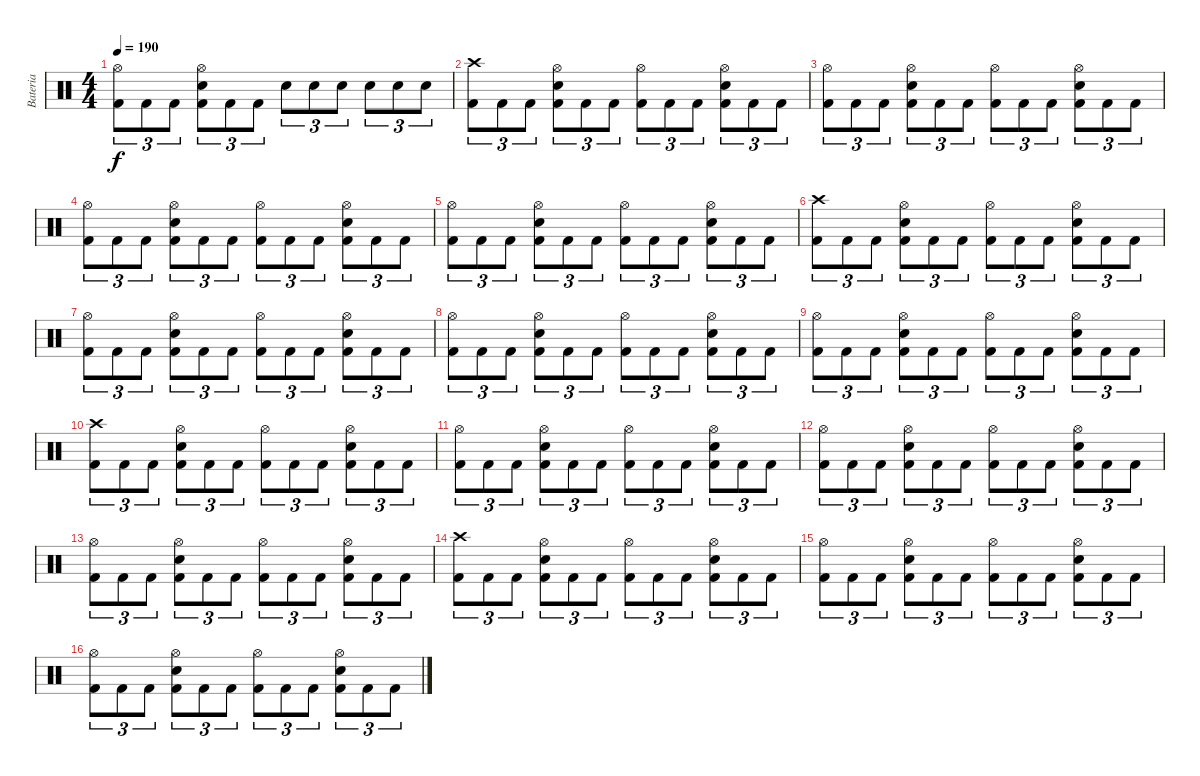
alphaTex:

\track ("Bateria" "Bateria") {instrument percussion}
\staff {score}
\articulation defaults
\ts (4 4)
\tempo 190
\clef neutral
\ks c
("Hi-Hat (open)" "Kick (hit) 2").8{tu (3 2) dy f} "Kick (hit) 2".8{tu (3 2)} "Kick (hit) 2".8{tu (3 2)} ("Hi-Hat (open)" "Electric Snare (hit)" "Kick (hit) 2").8{tu (3 2)} "Kick (hit) 2".8{tu (3 2)} "Kick (hit) 2".8{tu (3 2)} "Electric Snare (hit)".8{tu (3 2)} "Electric Snare (hit)".8{tu (3 2)} "Electric Snare (hit)".8{tu (3 2)} "Electric Snare (hit)".8{tu (3 2)} "Electric Snare (hit)".8{tu (3 2)} "Electric Snare (hit)".8{tu (3 2)} |
("Crash high (hit)" "Kick (hit) 2").8{tu (3 2)} "Kick (hit) 2".8{tu (3 2)} "Kick (hit) 2".8{tu (3 2)} ("Hi-Hat (open)" "Electric Snare (hit)" "Kick (hit) 2").8{tu (3 2)} "Kick (hit) 2".8{tu (3 2)} "Kick (hit) 2".8{tu (3 2)} ("Hi-Hat (open)" "Kick (hit) 2").8{tu (3 2)} "Kick (hit) 2".8{tu (3 2)} "Kick (hit) 2".8{tu (3 2)} ("Hi-Hat (open)" "Electric Snare (hit)" "Kick (hit) 2").8{tu (3 2)} "Kick (hit) 2".8{tu (3 2)} "Kick (hit) 2".8{tu (3 2)} |
("Hi-Hat (open)" "Kick (hit) 2").8{tu (3 2)} "Kick (hit) 2".8{tu (3 2)} "Kick (hit) 2".8{tu (3 2)} ("Hi-Hat (open)" "Electric Snare (hit)" "Kick (hit) 2").8{tu (3 2)} "Kick (hit) 2".8{tu (3 2)} "Kick (hit) 2".8{tu (3 2)} ("Hi-Hat (open)" "Kick (hit) 2").8{tu (3 2)} "Kick (hit) 2".8{tu (3 2)} "Kick (hit) 2".8{tu (3 2)} ("Hi-Hat (open)" "Electric Snare (hit)" "Kick (hit) 2").8{tu (3 2)} "Kick (hit) 2".8{tu (3 2)} "Kick (hit) 2".8{tu (3 2)} |
("Hi-Hat (open)" "Kick (hit) 2").8{tu (3 2)} "Kick (hit) 2".8{tu (3 2)} "Kick (hit) 2".8{tu (3 2)} ("Hi-Hat (open)" "Electric Snare (hit)" "Kick (hit) 2").8{tu (3 2)} "Kick (hit) 2".8{tu (3 2)} "Kick (hit) 2".8{tu (3 2)} ("Hi-Hat (open)" "Kick (hit) 2").8{tu (3 2)} "Kick (hit) 2".8{tu (3 2)} "Kick (hit) 2".8{tu (3 2)} ("Hi-Hat (open)" "Electric Snare (hit)" "Kick (hit) 2").8{tu (3 2)} "Kick (hit) 2".8{tu (3 2)} "Kick (hit) 2".8{tu (3 2)} |
("Hi-Hat (open)" "Kick (hit) 2").8{tu (3 2)} "Kick (hit) 2".8{tu (3 2)} "Kick (hit) 2".8{tu (3 2)} ("Hi-Hat (open)" "Electric Snare (hit)" "Kick (hit) 2").8{tu (3 2)} "Kick (hit) 2".8{tu (3 2)} "Kick (hit) 2".8{tu (3 2)} ("Hi-Hat (open)" "Kick (hit) 2").8{tu (3 2)} "Kick (hit) 2".8{tu (3 2)} "Kick (hit) 2".8{tu (3 2)} ("Hi-Hat (open)" "Electric Snare (hit)" "Kick (hit) 2").8{tu (3 2)} "Kick (hit) 2".8{tu (3 2)} "Kick (hit) 2".8{tu (3 2)} |
("Crash high (hit)" "Kick (hit) 2").8{tu (3 2)} "Kick (hit) 2".8{tu (3 2)} "Kick (hit) 2".8{tu (3 2)} ("Hi-Hat (open)" "Electric Snare (hit)" "Kick (hit) 2").8{tu (3 2)} "Kick (hit) 2".8{tu (3 2)} "Kick (hit) 2".8{tu (3 2)} ("Hi-Hat (open)" "Kick (hit) 2").8{tu (3 2)} "Kick (hit) 2".8{tu (3 2)} "Kick (hit) 2".8{tu (3 2)} ("Hi-Hat (open)" "Electric Snare (hit)" "Kick (hit) 2").8{tu (3 2)} "Kick (hit) 2".8{tu (3 2)} "Kick (hit) 2".8{tu (3 2)} |
("Hi-Hat (open)" "Kick (hit) 2").8{tu (3 2)} "Kick (hit) 2".8{tu (3 2)} "Kick (hit) 2".8{tu (3 2)} ("Hi-Hat (open)" "Electric Snare (hit)" "Kick (hit) 2").8{tu (3 2)} "Kick (hit) 2".8{tu (3 2)} "Kick (hit) 2".8{tu (3 2)} ("Hi-Hat (open)" "Kick (hit) 2").8{tu (3 2)} "Kick (hit) 2".8{tu (3 2)} "Kick (hit) 2".8{tu (3 2)} ("Hi-Hat (open)" "Electric Snare (hit)" "Kick (hit) 2").8{tu (3 2)} "Kick (hit) 2".8{tu (3 2)} "Kick (hit) 2".8{tu (3 2)} |
("Hi-Hat (open)" "Kick (hit) 2").8{tu (3 2)} "Kick (hit) 2".8{tu (3 2)} "Kick (hit) 2".8{tu (3 2)} ("Hi-Hat (open)" "Electric Snare (hit)" "Kick (hit) 2").8{tu (3 2)} "Kick (hit) 2".8{tu (3 2)} "Kick (hit) 2".8{tu (3 2)} ("Hi-Hat (open)" "Kick (hit) 2").8{tu (3 2)} "Kick (hit) 2".8{tu (3 2)} "Kick (hit) 2".8{tu (3 2)} ("Hi-Hat (open)" "Electric Snare (hit)" "Kick (hit) 2").8{tu (3 2)} "Kick (hit) 2".8{tu (3 2)} "Kick (hit) 2".8{tu (3 2)} |
("Hi-Hat (open)" "Kick (hit) 2").8{tu (3 2)} "Kick (hit) 2".8{tu (3 2)} "Kick (hit) 2".8{tu (3 2)} ("Hi-Hat (open)" "Electric Snare (hit)" "Kick (hit) 2").8{tu (3 2)} "Kick (hit) 2".8{tu (3 2)} "Kick (hit) 2".8{tu (3 2)} ("Hi-Hat (open)" "Kick (hit) 2").8{tu (3 2)} "Kick (hit) 2".8{tu (3 2)} "Kick (hit) 2".8{tu (3 2)} ("Hi-Hat (open)" "Electric Snare (hit)" "Kick (hit) 2").8{tu (3 2)} "Kick (hit) 2".8{tu (3 2)} "Kick (hit) 2".8{tu (3 2)} |
("Crash high (hit)" "Kick (hit) 2").8{tu (3 2)} "Kick (hit) 2".8{tu (3 2)} "Kick (hit) 2".8{tu (3 2)} ("Hi-Hat (open)" "Electric Snare (hit)" "Kick (hit) 2").8{tu (3 2)} "Kick (hit) 2".8{tu (3 2)} "Kick (hit) 2".8{tu (3 2)} ("Hi-Hat (open)" "Kick (hit) 2").8{tu (3 2)} "Kick (hit) 2".8{tu (3 2)} "Kick (hit) 2".8{tu (3 2)} ("Hi-Hat (open)" "Electric Snare (hit)" "Kick (hit) 2").8{tu (3 2)} "Kick (hit) 2".8{tu (3 2)} "Kick (hit) 2".8{tu (3 2)} |
("Hi-Hat (open)" "Kick (hit) 2").8{tu (3 2)} "Kick (hit) 2".8{tu (3 2)} "Kick (hit) 2".8{tu (3 2)} ("Hi-Hat (open)" "Electric Snare (hit)" "Kick (hit) 2").8{tu (3 2)} "Kick (hit) 2".8{tu (3 2)} "Kick (hit) 2".8{tu (3 2)} ("Hi-Hat (open)" "Kick (hit) 2").8{tu (3 2)} "Kick (hit) 2".8{tu (3 2)} "Kick (hit) 2".8{tu (3 2)} ("Hi-Hat (open)" "Electric Snare (hit)" "Kick (hit) 2").8{tu (3 2)} "Kick (hit) 2".8{tu (3 2)} "Kick (hit) 2".8{tu (3 2)} |
("Hi-Hat (open)" "Kick (hit) 2").8{tu (3 2)} "Kick (hit) 2".8{tu (3 2)} "Kick (hit) 2".8{tu (3 2)} ("Hi-Hat (open)" "Electric Snare (hit)" "Kick (hit) 2").8{tu (3 2)} "Kick (hit) 2".8{tu (3 2)} "Kick (hit) 2".8{tu (3 2)} ("Hi-Hat (open)" "Kick (hit) 2").8{tu (3 2)} "Kick (hit) 2".8{tu (3 2)} "Kick (hit) 2".8{tu (3 2)} ("Hi-Hat (open)" "Electric Snare (hit)" "Kick (hit) 2").8{tu (3 2)} "Kick (hit) 2".8{tu (3 2)} "Kick (hit) 2".8{tu (3 2)} |
("Hi-Hat (open)" "Kick (hit) 2").8{tu (3 2)} "Kick (hit) 2".8{tu (3 2)} "Kick (hit) 2".8{tu (3 2)} ("Hi-Hat (open)" "Electric Snare (hit)" "Kick (hit) 2").8{tu (3 2)} "Kick (hit) 2".8{tu (3 2)} "Kick (hit) 2".8{tu (3 2)} ("Hi-Hat (open)" "Kick (hit) 2").8{tu (3 2)} "Kick (hit) 2".8{tu (3 2)} "Kick (hit) 2".8{tu (3 2)} ("Hi-Hat (open)" "Electric Snare (hit)" "Kick (hit) 2").8{tu (3 2)} "Kick (hit) 2".8{tu (3 2)} "Kick (hit) 2".8{tu (3 2)} |
("Crash high (hit)" "Kick (hit) 2").8{tu (3 2)} "Kick (hit) 2".8{tu (3 2)} "Kick (hit) 2".8{tu (3 2)} ("Hi-Hat (open)" "Electric Snare (hit)" "Kick (hit) 2").8{tu (3 2)} "Kick (hit) 2".8{tu (3 2)} "Kick (hit) 2".8{tu (3 2)} ("Hi-Hat (open)" "Kick (hit) 2").8{tu (3 2)} "Kick (hit) 2".8{tu (3 2)} "Kick (hit) 2".8{tu (3 2)} ("Hi-Hat (open)" "Electric Snare (hit)" "Kick (hit) 2").8{tu (3 2)} "Kick (hit) 2".8{tu (3 2)} "Kick (hit) 2".8{tu (3 2)} |
("Hi-Hat (open)" "Kick (hit) 2").8{tu (3 2)} "Kick (hit) 2".8{tu (3 2)} "Kick (hit) 2".8{tu (3 2)} ("Hi-Hat (open)" "Electric Snare (hit)" "Kick (hit) 2").8{tu (3 2)} "Kick (hit) 2".8{tu (3 2)} "Kick (hit) 2".8{tu (3 2)} ("Hi-Hat (open)" "Kick (hit) 2").8{tu (3 2)} "Kick (hit) 2".8{tu (3 2)} "Kick (hit) 2".8{tu (3 2)} ("Hi-Hat (open)" "Electric Snare (hit)" "Kick (hit) 2").8{tu (3 2)} "Kick (hit) 2".8{tu (3 2)} "Kick (hit) 2".8{tu (3 2)} |
("Hi-Hat (open)" "Kick (hit) 2").8{tu (3 2)} "Kick (hit) 2".8{tu (3 2)} "Kick (hit) 2".8{tu (3 2)} ("Hi-Hat (open)" "Electric Snare (hit)" "Kick (hit) 2").8{tu (3 2)} "Kick (hit) 2".8{tu (3 2)} "Kick (hit) 2".8{tu (3 2)} ("Hi-Hat (open)" "Kick (hit) 2").8{tu (3 2)} "Kick (hit) 2".8{tu (3 2)} "Kick (hit) 2".8{tu (3 2)} ("Hi-Hat (open)" "Electric Snare (hit)" "Kick (hit) 2").8{tu (3 2)} "Kick (hit) 2".8{tu (3 2)} "Kick (hit) 2".8{tu (3 2)}
